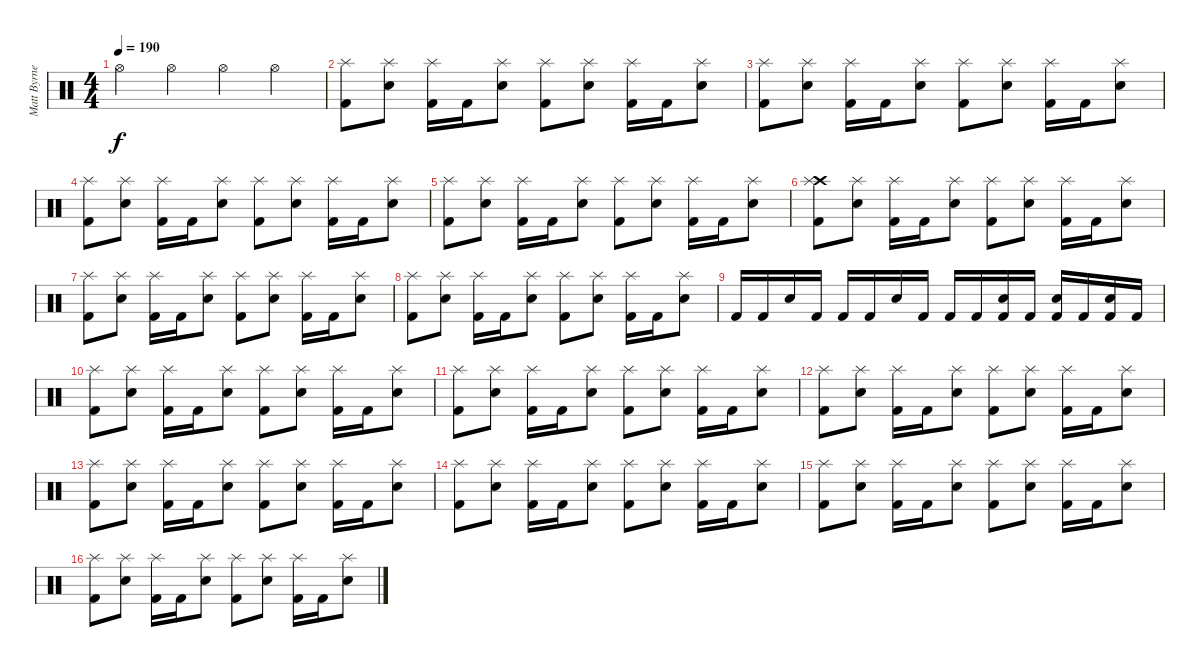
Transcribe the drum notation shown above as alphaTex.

\track ("Matt Byrne (Drums)" "Matt Byrne") {instrument percussion}
\staff {score}
\articulation defaults
\ts (4 4)
\tempo 190
\clef neutral
\ks c "Hi-Hat (open)".4{dy f} "Hi-Hat (open)".4 "Hi-Hat (open)".4 "Hi-Hat (open)".4
|
("Splash (hit)" "Kick (hit) 2").8 ("Splash (hit)" "Snare (hit) 2").8 ("Splash (hit)" "Kick (hit) 2").16 "Kick (hit) 2".16 ("Splash (hit)" "Snare (hit) 2").8 ("Splash (hit)" "Kick (hit) 2").8 ("Splash (hit)" "Snare (hit) 2").8 ("Splash (hit)" "Kick (hit) 2").16 "Kick (hit) 2".16 ("Splash (hit)" "Snare (hit) 2").8 |
("Splash (hit)" "Kick (hit) 2").8 ("Splash (hit)" "Snare (hit) 2").8 ("Splash (hit)" "Kick (hit) 2").16 "Kick (hit) 2".16 ("Splash (hit)" "Snare (hit) 2").8 ("Splash (hit)" "Kick (hit) 2").8 ("Splash (hit)" "Snare (hit) 2").8 ("Splash (hit)" "Kick (hit) 2").16 "Kick (hit) 2".16 ("Splash (hit)" "Snare (hit) 2").8 |
("Splash (hit)" "Kick (hit) 2").8 ("Splash (hit)" "Snare (hit) 2").8 ("Splash (hit)" "Kick (hit) 2").16 "Kick (hit) 2".16 ("Splash (hit)" "Snare (hit) 2").8 ("Splash (hit)" "Kick (hit) 2").8 ("Splash (hit)" "Snare (hit) 2").8 ("Splash (hit)" "Kick (hit) 2").16 "Kick (hit) 2".16 ("Splash (hit)" "Snare (hit) 2").8 |
("Splash (hit)" "Kick (hit) 2").8 ("Splash (hit)" "Snare (hit) 2").8 ("Splash (hit)" "Kick (hit) 2").16 "Kick (hit) 2".16 ("Splash (hit)" "Snare (hit) 2").8 ("Splash (hit)" "Kick (hit) 2").8 ("Splash (hit)" "Snare (hit) 2").8 ("Splash (hit)" "Kick (hit) 2").16 "Kick (hit) 2".16 ("Splash (hit)" "Snare (hit) 2").8 |
("Crash high (hit)" "Splash (hit)" "Kick (hit) 2").8 ("Splash (hit)" "Snare (hit) 2").8 ("Splash (hit)" "Kick (hit) 2").16 "Kick (hit) 2".16 ("Splash (hit)" "Snare (hit) 2").8 ("Splash (hit)" "Kick (hit) 2").8 ("Splash (hit)" "Snare (hit) 2").8 ("Splash (hit)" "Kick (hit) 2").16 "Kick (hit) 2".16 ("Splash (hit)" "Snare (hit) 2").8 |
("Splash (hit)" "Kick (hit) 2").8 ("Splash (hit)" "Snare (hit) 2").8 ("Splash (hit)" "Kick (hit) 2").16 "Kick (hit) 2".16 ("Splash (hit)" "Snare (hit) 2").8 ("Splash (hit)" "Kick (hit) 2").8 ("Splash (hit)" "Snare (hit) 2").8 ("Splash (hit)" "Kick (hit) 2").16 "Kick (hit) 2".16 ("Splash (hit)" "Snare (hit) 2").8 |
("Splash (hit)" "Kick (hit) 2").8 ("Splash (hit)" "Snare (hit) 2").8 ("Splash (hit)" "Kick (hit) 2").16 "Kick (hit) 2".16 ("Splash (hit)" "Snare (hit) 2").8 ("Splash (hit)" "Kick (hit) 2").8 ("Splash (hit)" "Snare (hit) 2").8 ("Splash (hit)" "Kick (hit) 2").16 "Kick (hit) 2".16 ("Splash (hit)" "Snare (hit) 2").8 |
"Kick (hit) 2".16 "Kick (hit) 2".16 "Snare (hit) 2".16 "Kick (hit) 2".16 "Kick (hit) 2".16 "Kick (hit) 2".16 "Snare (hit) 2".16 "Kick (hit) 2".16 "Kick (hit) 2".16 "Kick (hit) 2".16 ("Snare (hit) 2" "Kick (hit) 2").16 "Kick (hit) 2".16 ("Snare (hit) 2" "Kick (hit) 2").16 "Kick (hit) 2".16 ("Snare (hit) 2" "Kick (hit) 2").16 "Kick (hit) 2".16 |
("Splash (hit)" "Kick (hit) 2").8 ("Splash (hit)" "Snare (hit) 2").8 ("Splash (hit)" "Kick (hit) 2").16 "Kick (hit) 2".16 ("Splash (hit)" "Snare (hit) 2").8 ("Splash (hit)" "Kick (hit) 2").8 ("Splash (hit)" "Snare (hit) 2").8 ("Splash (hit)" "Kick (hit) 2").16 "Kick (hit) 2".16 ("Splash (hit)" "Snare (hit) 2").8 |
("Splash (hit)" "Kick (hit) 2").8 ("Splash (hit)" "Snare (hit) 2").8 ("Splash (hit)" "Kick (hit) 2").16 "Kick (hit) 2".16 ("Splash (hit)" "Snare (hit) 2").8 ("Splash (hit)" "Kick (hit) 2").8 ("Splash (hit)" "Snare (hit) 2").8 ("Splash (hit)" "Kick (hit) 2").16 "Kick (hit) 2".16 ("Splash (hit)" "Snare (hit) 2").8 |
("Splash (hit)" "Kick (hit) 2").8 ("Splash (hit)" "Snare (hit) 2").8 ("Splash (hit)" "Kick (hit) 2").16 "Kick (hit) 2".16 ("Splash (hit)" "Snare (hit) 2").8 ("Splash (hit)" "Kick (hit) 2").8 ("Splash (hit)" "Snare (hit) 2").8 ("Splash (hit)" "Kick (hit) 2").16 "Kick (hit) 2".16 ("Splash (hit)" "Snare (hit) 2").8 |
("Splash (hit)" "Kick (hit) 2").8 ("Splash (hit)" "Snare (hit) 2").8 ("Splash (hit)" "Kick (hit) 2").16 "Kick (hit) 2".16 ("Splash (hit)" "Snare (hit) 2").8 ("Splash (hit)" "Kick (hit) 2").8 ("Splash (hit)" "Snare (hit) 2").8 ("Splash (hit)" "Kick (hit) 2").16 "Kick (hit) 2".16 ("Splash (hit)" "Snare (hit) 2").8 |
("Splash (hit)" "Kick (hit) 2").8 ("Splash (hit)" "Snare (hit) 2").8 ("Splash (hit)" "Kick (hit) 2").16 "Kick (hit) 2".16 ("Splash (hit)" "Snare (hit) 2").8 ("Splash (hit)" "Kick (hit) 2").8 ("Splash (hit)" "Snare (hit) 2").8 ("Splash (hit)" "Kick (hit) 2").16 "Kick (hit) 2".16 ("Splash (hit)" "Snare (hit) 2").8 |
("Splash (hit)" "Kick (hit) 2").8 ("Splash (hit)" "Snare (hit) 2").8 ("Splash (hit)" "Kick (hit) 2").16 "Kick (hit) 2".16 ("Splash (hit)" "Snare (hit) 2").8 ("Splash (hit)" "Kick (hit) 2").8 ("Splash (hit)" "Snare (hit) 2").8 ("Splash (hit)" "Kick (hit) 2").16 "Kick (hit) 2".16 ("Splash (hit)" "Snare (hit) 2").8 |
("Splash (hit)" "Kick (hit) 2").8 ("Splash (hit)" "Snare (hit) 2").8 ("Splash (hit)" "Kick (hit) 2").16 "Kick (hit) 2".16 ("Splash (hit)" "Snare (hit) 2").8 ("Splash (hit)" "Kick (hit) 2").8 ("Splash (hit)" "Snare (hit) 2").8 ("Splash (hit)" "Kick (hit) 2").16 "Kick (hit) 2".16 ("Splash (hit)" "Snare (hit) 2").8
